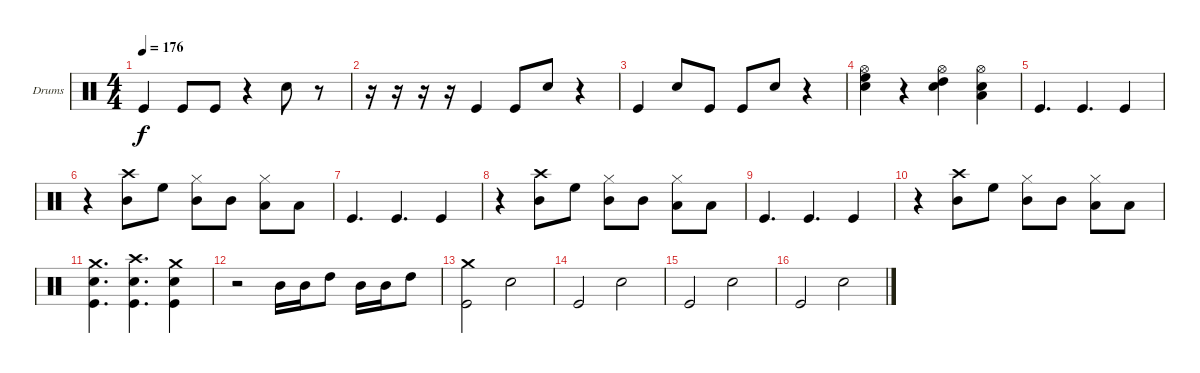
\bracketExtendMode groupsimilarinstruments
\firstSystemTrackNameOrientation horizontal
\otherSystemsTrackNameOrientation horizontal
\track ("Drumkit" "Drums") {instrument percussion}
\staff {score}
\articulation defaults
\ts (4 4)
\tempo 176
\clef neutral
\ks c "Kick (hit)".4{dy f} "Kick (hit)".8 "Kick (hit)".8
r.4 "Snare (hit) 2".8 r.8 |
r.16 r.16 r.16 r.16 "Kick (hit)".4 "Kick (hit)".8 "Snare (hit) 2".8 r.4 |
"Kick (hit)".4 "Snare (hit) 2".8 "Kick (hit)".8 "Kick (hit)".8 "Snare (hit) 2".8 r.4 |
("Hi-Hat (open)" "Snare (hit) 2" "High Floor Tom (hit)").4 r.4 ("Hi-Hat (open)" "Snare (hit) 2" "High Tom (hit)").4 ("Hi-Hat (open)" "Snare (hit) 2" "Low Tom (hit)").4 |
"Kick (hit)".4{d} "Kick (hit)".4{d} "Kick (hit)".4 |
r.4 ("Mid Tom (hit)" "Crash high (hit)").8 "High Floor Tom (hit)".8 ("Mid Tom (hit)" "Hi-Hat (closed)").8 "Mid Tom (hit)".8 ("Low Tom (hit)" "Hi-Hat (closed)").8 "Low Tom (hit)".8 |
"Kick (hit)".4{d} "Kick (hit)".4{d} "Kick (hit)".4 |
r.4 ("Mid Tom (hit)" "Crash high (hit)").8 "High Floor Tom (hit)".8 ("Mid Tom (hit)" "Hi-Hat (closed)").8 "Mid Tom (hit)".8 ("Low Tom (hit)" "Hi-Hat (closed)").8 "Low Tom (hit)".8 |
"Kick (hit)".4{d} "Kick (hit)".4{d} "Kick (hit)".4 |
r.4 ("Mid Tom (hit)" "Crash high (hit)").8 "High Floor Tom (hit)".8 ("Mid Tom (hit)" "Hi-Hat (closed)").8 "Mid Tom (hit)".8 ("Low Tom (hit)" "Hi-Hat (closed)").8 "Low Tom (hit)".8 |
("Crash medium (hit)" "Kick (hit)" "Snare (hit) 2").4{d} ("Crash high (hit)" "Kick (hit)" "Snare (hit) 2").4{d} ("Crash medium (hit)" "Kick (hit)" "Snare (hit) 2").4 |
r.2 "Mid Tom (hit)".16 "Mid Tom (hit)".16 "High Tom (hit)".8 "Mid Tom (hit)".16 "Mid Tom (hit)".16 "High Tom (hit)".8 |
("Crash medium (hit)" "Kick (hit)").2 "Snare (hit) 2".2 |
"Kick (hit)".2 "Snare (hit) 2".2 |
"Kick (hit)".2 "Snare (hit) 2".2 |
"Kick (hit)".2 "Snare (hit) 2".2
